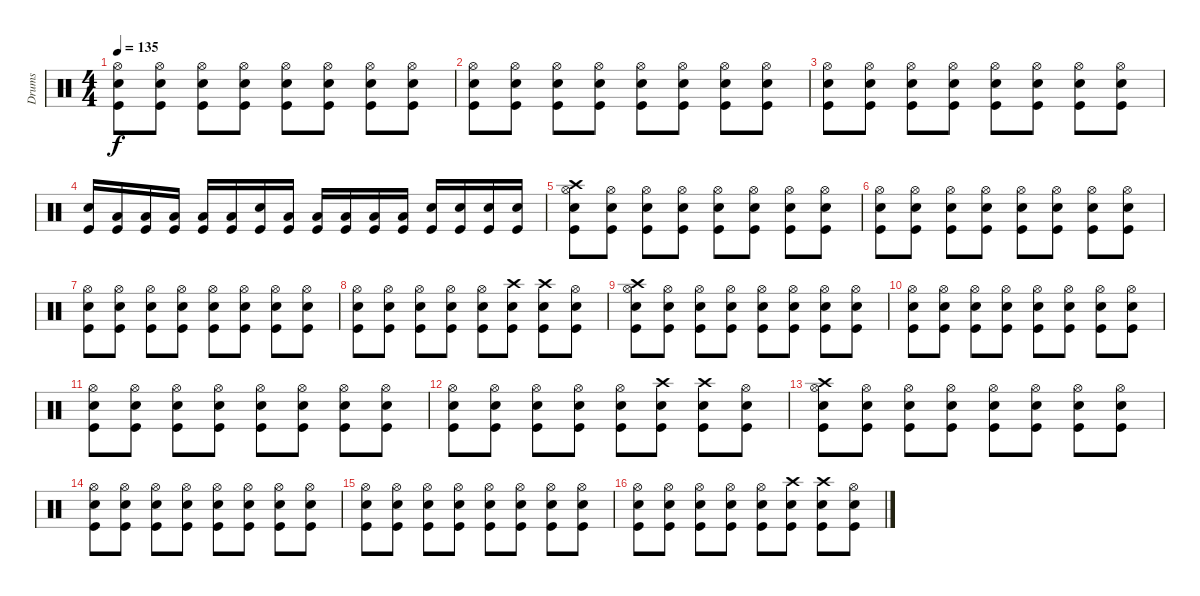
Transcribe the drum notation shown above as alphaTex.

\track ("Drums" "Drums") {instrument percussion}
\staff {score}
\articulation defaults
\ts (4 4)
\tempo 135
\clef neutral
\ks c
("Hi-Hat (open)" "Electric Snare (hit)" "Kick (hit)").8{dy f} ("Hi-Hat (open)" "Electric Snare (hit)" "Kick (hit)").8 ("Hi-Hat (open)" "Electric Snare (hit)" "Kick (hit)").8 ("Hi-Hat (open)" "Electric Snare (hit)" "Kick (hit)").8 ("Hi-Hat (open)" "Electric Snare (hit)" "Kick (hit)").8 ("Hi-Hat (open)" "Electric Snare (hit)" "Kick (hit)").8 ("Hi-Hat (open)" "Electric Snare (hit)" "Kick (hit)").8 ("Hi-Hat (open)" "Electric Snare (hit)" "Kick (hit)").8 |
("Hi-Hat (open)" "Electric Snare (hit)" "Kick (hit)").8 ("Hi-Hat (open)" "Electric Snare (hit)" "Kick (hit)").8 ("Hi-Hat (open)" "Electric Snare (hit)" "Kick (hit)").8 ("Hi-Hat (open)" "Electric Snare (hit)" "Kick (hit)").8 ("Hi-Hat (open)" "Electric Snare (hit)" "Kick (hit)").8 ("Hi-Hat (open)" "Electric Snare (hit)" "Kick (hit)").8 ("Hi-Hat (open)" "Electric Snare (hit)" "Kick (hit)").8 ("Hi-Hat (open)" "Electric Snare (hit)" "Kick (hit)").8 |
("Hi-Hat (open)" "Electric Snare (hit)" "Kick (hit)").8 ("Hi-Hat (open)" "Electric Snare (hit)" "Kick (hit)").8 ("Hi-Hat (open)" "Electric Snare (hit)" "Kick (hit)").8 ("Hi-Hat (open)" "Electric Snare (hit)" "Kick (hit)").8 ("Hi-Hat (open)" "Electric Snare (hit)" "Kick (hit)").8 ("Hi-Hat (open)" "Electric Snare (hit)" "Kick (hit)").8 ("Hi-Hat (open)" "Electric Snare (hit)" "Kick (hit)").8 ("Hi-Hat (open)" "Electric Snare (hit)" "Kick (hit)").8 |
("Electric Snare (hit)" "Kick (hit)").16 ("Low Tom (hit)" "Kick (hit)").16 ("Low Tom (hit)" "Kick (hit)").16 ("Low Tom (hit)" "Kick (hit)").16 ("Low Tom (hit)" "Kick (hit)").16 ("Low Tom (hit)" "Kick (hit)").16 ("Electric Snare (hit)" "Kick (hit)").16 ("Low Tom (hit)" "Kick (hit)").16 ("Low Tom (hit)" "Kick (hit)").16 ("Low Tom (hit)" "Kick (hit)").16 ("Low Tom (hit)" "Kick (hit)").16 ("Low Tom (hit)" "Kick (hit)").16 ("Electric Snare (hit)" "Kick (hit)").16 ("Electric Snare (hit)" "Kick (hit)").16 ("Electric Snare (hit)" "Kick (hit)").16 ("Electric Snare (hit)" "Kick (hit)").16 |
("Crash high (hit)" "Hi-Hat (open)" "Electric Snare (hit)" "Kick (hit)").8 ("Hi-Hat (open)" "Electric Snare (hit)" "Kick (hit)").8 ("Hi-Hat (open)" "Electric Snare (hit)" "Kick (hit)").8 ("Hi-Hat (open)" "Electric Snare (hit)" "Kick (hit)").8 ("Hi-Hat (open)" "Electric Snare (hit)" "Kick (hit)").8 ("Hi-Hat (open)" "Electric Snare (hit)" "Kick (hit)").8 ("Hi-Hat (open)" "Electric Snare (hit)" "Kick (hit)").8 ("Hi-Hat (open)" "Electric Snare (hit)" "Kick (hit)").8 |
("Hi-Hat (open)" "Electric Snare (hit)" "Kick (hit)").8 ("Hi-Hat (open)" "Electric Snare (hit)" "Kick (hit)").8 ("Hi-Hat (open)" "Electric Snare (hit)" "Kick (hit)").8 ("Hi-Hat (open)" "Electric Snare (hit)" "Kick (hit)").8 ("Hi-Hat (open)" "Electric Snare (hit)" "Kick (hit)").8 ("Hi-Hat (open)" "Electric Snare (hit)" "Kick (hit)").8 ("Hi-Hat (open)" "Electric Snare (hit)" "Kick (hit)").8 ("Hi-Hat (open)" "Electric Snare (hit)" "Kick (hit)").8 |
("Hi-Hat (open)" "Electric Snare (hit)" "Kick (hit)").8 ("Hi-Hat (open)" "Electric Snare (hit)" "Kick (hit)").8 ("Hi-Hat (open)" "Electric Snare (hit)" "Kick (hit)").8 ("Hi-Hat (open)" "Electric Snare (hit)" "Kick (hit)").8 ("Hi-Hat (open)" "Electric Snare (hit)" "Kick (hit)").8 ("Hi-Hat (open)" "Electric Snare (hit)" "Kick (hit)").8 ("Hi-Hat (open)" "Electric Snare (hit)" "Kick (hit)").8 ("Hi-Hat (open)" "Electric Snare (hit)" "Kick (hit)").8 |
("Hi-Hat (open)" "Electric Snare (hit)" "Kick (hit)").8 ("Hi-Hat (open)" "Electric Snare (hit)" "Kick (hit)").8 ("Hi-Hat (open)" "Electric Snare (hit)" "Kick (hit)").8 ("Hi-Hat (open)" "Electric Snare (hit)" "Kick (hit)").8 ("Hi-Hat (open)" "Electric Snare (hit)" "Kick (hit)").8 ("Crash high (hit)" "Electric Snare (hit)" "Kick (hit)").8 ("Crash high (hit)" "Electric Snare (hit)" "Kick (hit)").8 ("Hi-Hat (open)" "Electric Snare (hit)" "Kick (hit)").8 |
("Crash high (hit)" "Hi-Hat (open)" "Electric Snare (hit)" "Kick (hit)").8 ("Hi-Hat (open)" "Electric Snare (hit)" "Kick (hit)").8 ("Hi-Hat (open)" "Electric Snare (hit)" "Kick (hit)").8 ("Hi-Hat (open)" "Electric Snare (hit)" "Kick (hit)").8 ("Hi-Hat (open)" "Electric Snare (hit)" "Kick (hit)").8 ("Hi-Hat (open)" "Electric Snare (hit)" "Kick (hit)").8 ("Hi-Hat (open)" "Electric Snare (hit)" "Kick (hit)").8 ("Hi-Hat (open)" "Electric Snare (hit)" "Kick (hit)").8 |
("Hi-Hat (open)" "Electric Snare (hit)" "Kick (hit)").8 ("Hi-Hat (open)" "Electric Snare (hit)" "Kick (hit)").8 ("Hi-Hat (open)" "Electric Snare (hit)" "Kick (hit)").8 ("Hi-Hat (open)" "Electric Snare (hit)" "Kick (hit)").8 ("Hi-Hat (open)" "Electric Snare (hit)" "Kick (hit)").8 ("Hi-Hat (open)" "Electric Snare (hit)" "Kick (hit)").8 ("Hi-Hat (open)" "Electric Snare (hit)" "Kick (hit)").8 ("Hi-Hat (open)" "Electric Snare (hit)" "Kick (hit)").8 |
("Hi-Hat (open)" "Electric Snare (hit)" "Kick (hit)").8 ("Hi-Hat (open)" "Electric Snare (hit)" "Kick (hit)").8 ("Hi-Hat (open)" "Electric Snare (hit)" "Kick (hit)").8 ("Hi-Hat (open)" "Electric Snare (hit)" "Kick (hit)").8 ("Hi-Hat (open)" "Electric Snare (hit)" "Kick (hit)").8 ("Hi-Hat (open)" "Electric Snare (hit)" "Kick (hit)").8 ("Hi-Hat (open)" "Electric Snare (hit)" "Kick (hit)").8 ("Hi-Hat (open)" "Electric Snare (hit)" "Kick (hit)").8 |
("Hi-Hat (open)" "Electric Snare (hit)" "Kick (hit)").8 ("Hi-Hat (open)" "Electric Snare (hit)" "Kick (hit)").8 ("Hi-Hat (open)" "Electric Snare (hit)" "Kick (hit)").8 ("Hi-Hat (open)" "Electric Snare (hit)" "Kick (hit)").8 ("Hi-Hat (open)" "Electric Snare (hit)" "Kick (hit)").8 ("Crash high (hit)" "Electric Snare (hit)" "Kick (hit)").8 ("Crash high (hit)" "Electric Snare (hit)" "Kick (hit)").8 ("Hi-Hat (open)" "Electric Snare (hit)" "Kick (hit)").8 |
("Crash high (hit)" "Hi-Hat (open)" "Electric Snare (hit)" "Kick (hit)").8 ("Hi-Hat (open)" "Electric Snare (hit)" "Kick (hit)").8 ("Hi-Hat (open)" "Electric Snare (hit)" "Kick (hit)").8 ("Hi-Hat (open)" "Electric Snare (hit)" "Kick (hit)").8 ("Hi-Hat (open)" "Electric Snare (hit)" "Kick (hit)").8 ("Hi-Hat (open)" "Electric Snare (hit)" "Kick (hit)").8 ("Hi-Hat (open)" "Electric Snare (hit)" "Kick (hit)").8 ("Hi-Hat (open)" "Electric Snare (hit)" "Kick (hit)").8 |
("Hi-Hat (open)" "Electric Snare (hit)" "Kick (hit)").8 ("Hi-Hat (open)" "Electric Snare (hit)" "Kick (hit)").8 ("Hi-Hat (open)" "Electric Snare (hit)" "Kick (hit)").8 ("Hi-Hat (open)" "Electric Snare (hit)" "Kick (hit)").8 ("Hi-Hat (open)" "Electric Snare (hit)" "Kick (hit)").8 ("Hi-Hat (open)" "Electric Snare (hit)" "Kick (hit)").8 ("Hi-Hat (open)" "Electric Snare (hit)" "Kick (hit)").8 ("Hi-Hat (open)" "Electric Snare (hit)" "Kick (hit)").8 |
("Hi-Hat (open)" "Electric Snare (hit)" "Kick (hit)").8 ("Hi-Hat (open)" "Electric Snare (hit)" "Kick (hit)").8 ("Hi-Hat (open)" "Electric Snare (hit)" "Kick (hit)").8 ("Hi-Hat (open)" "Electric Snare (hit)" "Kick (hit)").8 ("Hi-Hat (open)" "Electric Snare (hit)" "Kick (hit)").8 ("Hi-Hat (open)" "Electric Snare (hit)" "Kick (hit)").8 ("Hi-Hat (open)" "Electric Snare (hit)" "Kick (hit)").8 ("Hi-Hat (open)" "Electric Snare (hit)" "Kick (hit)").8 |
("Hi-Hat (open)" "Electric Snare (hit)" "Kick (hit)").8 ("Hi-Hat (open)" "Electric Snare (hit)" "Kick (hit)").8 ("Hi-Hat (open)" "Electric Snare (hit)" "Kick (hit)").8 ("Hi-Hat (open)" "Electric Snare (hit)" "Kick (hit)").8 ("Hi-Hat (open)" "Electric Snare (hit)" "Kick (hit)").8 ("Crash high (hit)" "Electric Snare (hit)" "Kick (hit)").8 ("Crash high (hit)" "Electric Snare (hit)" "Kick (hit)").8 ("Hi-Hat (open)" "Electric Snare (hit)" "Kick (hit)").8
